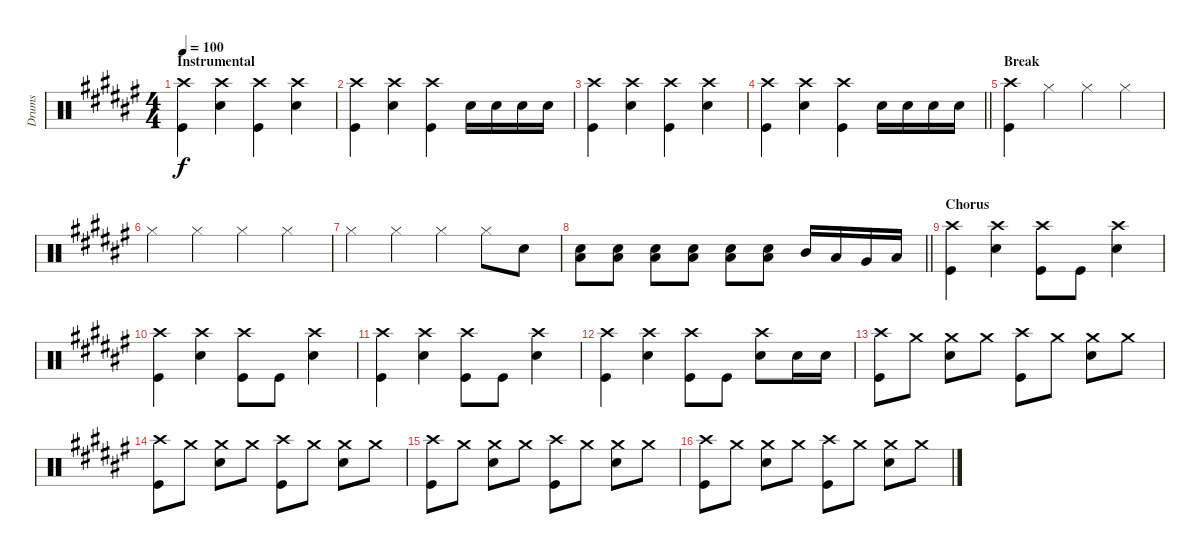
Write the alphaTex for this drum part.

\track ("Drums" "Drums") {instrument percussion}
\staff {score}
\articulation defaults
\ts (4 4)
\section ("" "Instrumental")
\tempo 100
\clef neutral
\ks f#
("Crash high (hit)" "Kick (hit)").4{dy f} ("Crash high (hit)" "Snare (hit) 2").4 ("Crash high (hit)" "Kick (hit)").4 ("Crash high (hit)" "Snare (hit) 2").4 |
("Crash high (hit)" "Kick (hit)").4 ("Crash high (hit)" "Snare (hit) 2").4 ("Crash high (hit)" "Kick (hit)").4 "Snare (hit) 2".16 "Snare (hit) 2".16 "Snare (hit) 2".16 "Snare (hit) 2".16 |
("Crash high (hit)" "Kick (hit)").4 ("Crash high (hit)" "Snare (hit) 2").4 ("Crash high (hit)" "Kick (hit)").4 ("Crash high (hit)" "Snare (hit) 2").4 |
\barLineRight lightlight
("Crash high (hit)" "Kick (hit)").4 ("Crash high (hit)" "Snare (hit) 2").4 ("Crash high (hit)" "Kick (hit)").4 "Snare (hit) 2".16 "Snare (hit) 2".16 "Snare (hit) 2".16 "Snare (hit) 2".16 |
\section ("" "Break")
("Crash high (hit)" "Kick (hit)").4 "Hi-Hat (closed)".4 "Hi-Hat (closed)".4 "Hi-Hat (closed)".4 |
"Hi-Hat (closed)".4 "Hi-Hat (closed)".4 "Hi-Hat (closed)".4 "Hi-Hat (closed)".4 |
"Hi-Hat (closed)".4 "Hi-Hat (closed)".4 "Hi-Hat (closed)".4 "Hi-Hat (closed)".8 "Snare (hit) 2".8 |
\barLineRight lightlight
("Low Floor Tom (hit)" "Snare (hit) 2").8 ("Low Floor Tom (hit)" "Snare (hit) 2").8 ("Low Floor Tom (hit)" "Snare (hit) 2").8 ("Low Floor Tom (hit)" "Snare (hit) 2").8 ("Low Floor Tom (hit)" "Snare (hit) 2").8 ("Low Floor Tom (hit)" "Snare (hit) 2").8 "Mid Tom (hit)".16 "Low Tom (hit)".16 "Very Low Tom (hit)".16 "Low Floor Tom (hit)".16 |
\section ("" "Chorus")
("Crash high (hit)" "Kick (hit)").4 ("Crash high (hit)" "Snare (hit) 2").4 ("Crash high (hit)" "Kick (hit)").8 "Kick (hit)".8 ("Crash high (hit)" "Snare (hit) 2").4 |
("Crash high (hit)" "Kick (hit)").4 ("Crash high (hit)" "Snare (hit) 2").4 ("Crash high (hit)" "Kick (hit)").8 "Kick (hit)".8 ("Crash high (hit)" "Snare (hit) 2").4 |
("Crash high (hit)" "Kick (hit)").4 ("Crash high (hit)" "Snare (hit) 2").4 ("Crash high (hit)" "Kick (hit)").8 "Kick (hit)".8 ("Crash high (hit)" "Snare (hit) 2").4 |
("Crash high (hit)" "Kick (hit)").4 ("Crash high (hit)" "Snare (hit) 2").4 ("Crash high (hit)" "Kick (hit)").8 "Kick (hit)".8 ("Crash high (hit)" "Snare (hit) 2").8 "Snare (hit) 2".16 "Snare (hit) 2".16 |
("Crash high (hit)" "Kick (hit)").8 "Crash medium (hit)".8 ("Crash medium (hit)" "Snare (hit) 2").8 "Crash medium (hit)".8 ("Crash high (hit)" "Kick (hit)").8 "Crash medium (hit)".8 ("Crash medium (hit)" "Snare (hit) 2").8 "Crash medium (hit)".8 |
("Crash high (hit)" "Kick (hit)").8 "Crash medium (hit)".8 ("Crash medium (hit)" "Snare (hit) 2").8 "Crash medium (hit)".8 ("Crash high (hit)" "Kick (hit)").8 "Crash medium (hit)".8 ("Crash medium (hit)" "Snare (hit) 2").8 "Crash medium (hit)".8 |
("Crash high (hit)" "Kick (hit)").8 "Crash medium (hit)".8 ("Crash medium (hit)" "Snare (hit) 2").8 "Crash medium (hit)".8 ("Crash high (hit)" "Kick (hit)").8 "Crash medium (hit)".8 ("Crash medium (hit)" "Snare (hit) 2").8 "Crash medium (hit)".8 |
("Crash high (hit)" "Kick (hit)").8 "Crash medium (hit)".8 ("Crash medium (hit)" "Snare (hit) 2").8 "Crash medium (hit)".8 ("Crash high (hit)" "Kick (hit)").8 "Crash medium (hit)".8 ("Crash medium (hit)" "Snare (hit) 2").8 "Crash medium (hit)".8
